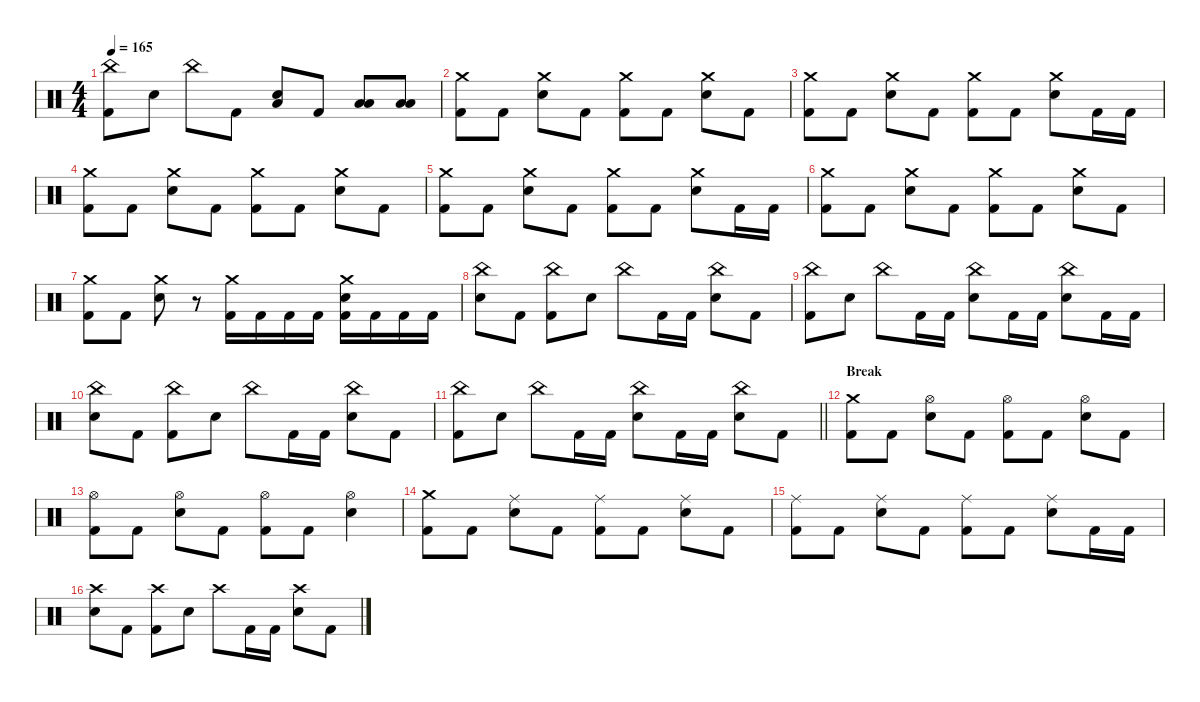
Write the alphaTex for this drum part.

\defaultSystemsLayout 4
\hideDynamics
\bracketExtendMode nobrackets
\singleTrackTrackNamePolicy hidden
\multiTrackTrackNamePolicy hidden
\firstSystemTrackNameMode fullname
\firstSystemTrackNameOrientation horizontal
\otherSystemsTrackNameOrientation horizontal
\track ("Percussions" "drm.") {instrument percussion}
\staff {score}
\articulation defaults
\ts (4 4)
\tempo 165
\clef neutral
\ks c
("China (hit)" "Kick (hit) 2").8{dy f beam Down} "Snare (hit) 2".8{beam Down} "China (hit)".8{beam Down} "Kick (hit) 2".8{beam Down} ("Snare (hit) 2" "Low Floor Tom (hit)").8{beam Up} "Kick (hit) 2".8{beam Up} ("Low Tom (hit)" "Low Floor Tom (hit)").8{beam Up} ("Low Tom (hit)" "Low Floor Tom (hit)").8{beam Up} |
("Crash medium (hit)" "Kick (hit) 2").8{beam Down} "Kick (hit) 2".8{beam Down} ("Crash medium (hit)" "Snare (hit) 2").8{beam Down} "Kick (hit) 2".8{beam Down} ("Crash medium (hit)" "Kick (hit) 2").8{beam Down} "Kick (hit) 2".8{beam Down} ("Crash medium (hit)" "Snare (hit) 2").8{beam Down} "Kick (hit) 2".8{beam Down} |
("Crash medium (hit)" "Kick (hit) 2").8{beam Down} "Kick (hit) 2".8{beam Down} ("Crash medium (hit)" "Snare (hit) 2").8{beam Down} "Kick (hit) 2".8{beam Down} ("Crash medium (hit)" "Kick (hit) 2").8{beam Down} "Kick (hit) 2".8{beam Down} ("Crash medium (hit)" "Snare (hit) 2").8{beam Down} "Kick (hit) 2".16{beam Down} "Kick (hit) 2".16{beam Down} |
("Crash medium (hit)" "Kick (hit) 2").8{beam Down} "Kick (hit) 2".8{beam Down} ("Crash medium (hit)" "Snare (hit) 2").8{beam Down} "Kick (hit) 2".8{beam Down} ("Crash medium (hit)" "Kick (hit) 2").8{beam Down} "Kick (hit) 2".8{beam Down} ("Crash medium (hit)" "Snare (hit) 2").8{beam Down} "Kick (hit) 2".8{beam Down} |
("Crash medium (hit)" "Kick (hit) 2").8{beam Down} "Kick (hit) 2".8{beam Down} ("Crash medium (hit)" "Snare (hit) 2").8{beam Down} "Kick (hit) 2".8{beam Down} ("Crash medium (hit)" "Kick (hit) 2").8{beam Down} "Kick (hit) 2".8{beam Down} ("Crash medium (hit)" "Snare (hit) 2").8{beam Down} "Kick (hit) 2".16{beam Down} "Kick (hit) 2".16{beam Down} |
("Crash medium (hit)" "Kick (hit) 2").8{beam Down} "Kick (hit) 2".8{beam Down} ("Crash medium (hit)" "Snare (hit) 2").8{beam Down} "Kick (hit) 2".8{beam Down} ("Crash medium (hit)" "Kick (hit) 2").8{beam Down} "Kick (hit) 2".8{beam Down} ("Crash medium (hit)" "Snare (hit) 2").8{beam Down} "Kick (hit) 2".8{beam Down} |
("Crash medium (hit)" "Kick (hit) 2").8{beam Down} "Kick (hit) 2".8{beam Down} ("Crash medium (hit)" "Snare (hit) 2").8{beam Down} r.8{beam Down} ("Crash medium (hit)" "Kick (hit) 2").16{beam Down} "Kick (hit) 2".16{beam Down} "Kick (hit) 2".16{beam Down} "Kick (hit) 2".16{beam Down} ("Crash medium (hit)" "Snare (hit) 2" "Kick (hit) 2").16{beam Down} "Kick (hit) 2".16{beam Down} "Kick (hit) 2".16{beam Down} "Kick (hit) 2".16{beam Down} |
("China (hit)" "Snare (hit) 2").8{beam Down} "Kick (hit) 2".8{beam Down} ("China (hit)" "Kick (hit) 2").8{beam Down} "Snare (hit) 2".8{beam Down} "China (hit)".8{beam Down} "Kick (hit) 2".16{beam Down} "Kick (hit) 2".16{beam Down} ("China (hit)" "Snare (hit) 2").8{beam Down} "Kick (hit) 2".8{beam Down} |
("China (hit)" "Kick (hit) 2").8{beam Down} "Snare (hit) 2".8{beam Down} "China (hit)".8{beam Down} "Kick (hit) 2".16{beam Down} "Kick (hit) 2".16{beam Down} ("China (hit)" "Snare (hit) 2").8{beam Down} "Kick (hit) 2".16{beam Down} "Kick (hit) 2".16{beam Down} ("China (hit)" "Snare (hit) 2").8{beam Down} "Kick (hit) 2".16{beam Down} "Kick (hit) 2".16{beam Down} |
("China (hit)" "Snare (hit) 2").8{beam Down} "Kick (hit) 2".8{beam Down} ("China (hit)" "Kick (hit) 2").8{beam Down} "Snare (hit) 2".8{beam Down} "China (hit)".8{beam Down} "Kick (hit) 2".16{beam Down} "Kick (hit) 2".16{beam Down} ("China (hit)" "Snare (hit) 2").8{beam Down} "Kick (hit) 2".8{beam Down} |
\barLineRight lightlight
("China (hit)" "Kick (hit) 2").8{beam Down} "Snare (hit) 2".8{beam Down} "China (hit)".8{beam Down} "Kick (hit) 2".16{beam Down} "Kick (hit) 2".16{beam Down} ("China (hit)" "Snare (hit) 2").8{beam Down} "Kick (hit) 2".16{beam Down} "Kick (hit) 2".16{beam Down} ("China (hit)" "Snare (hit) 2").8{beam Down} "Kick (hit) 2".8{beam Down} |
\section ("" "Break")
("Crash medium (hit)" "Kick (hit) 2").8{beam Down} "Kick (hit) 2".8{beam Down} ("Hi-Hat (open)" "Snare (hit) 2").8{beam Down} "Kick (hit) 2".8{beam Down} ("Hi-Hat (open)" "Kick (hit) 2").8{beam Down} "Kick (hit) 2".8{beam Down} ("Hi-Hat (open)" "Snare (hit) 2").8{beam Down} "Kick (hit) 2".8{beam Down} |
("Hi-Hat (open)" "Kick (hit) 2").8{beam Down} "Kick (hit) 2".8{beam Down} ("Hi-Hat (open)" "Snare (hit) 2").8{beam Down} "Kick (hit) 2".8{beam Down} ("Hi-Hat (open)" "Kick (hit) 2").8{beam Down} "Kick (hit) 2".8{beam Down} ("Hi-Hat (open)" "Snare (hit) 2").4{beam Down} |
("Crash medium (hit)" "Kick (hit) 2").8{beam Down} "Kick (hit) 2".8{beam Down} ("Ride (middle)" "Snare (hit) 2").8{beam Down} "Kick (hit) 2".8{beam Down} ("Ride (middle)" "Kick (hit) 2").8{beam Down} "Kick (hit) 2".8{beam Down} ("Ride (middle)" "Snare (hit) 2").8{beam Down} "Kick (hit) 2".8{beam Down} |
("Ride (middle)" "Kick (hit) 2").8{beam Down} "Kick (hit) 2".8{beam Down} ("Ride (middle)" "Snare (hit) 2").8{beam Down} "Kick (hit) 2".8{beam Down} ("Ride (middle)" "Kick (hit) 2").8{beam Down} "Kick (hit) 2".8{beam Down} ("Ride (middle)" "Snare (hit) 2").8{beam Down} "Kick (hit) 2".16{beam Down} "Kick (hit) 2".16{beam Down} |
("Crash high (hit)" "Snare (hit) 2").8{beam Down} "Kick (hit) 2".8{beam Down} ("Crash high (hit)" "Kick (hit) 2").8{beam Down} "Snare (hit) 2".8{beam Down} "Crash high (hit)".8{beam Down} "Kick (hit) 2".16{beam Down} "Kick (hit) 2".16{beam Down} ("Crash high (hit)" "Snare (hit) 2").8{beam Down} "Kick (hit) 2".8{beam Down}
